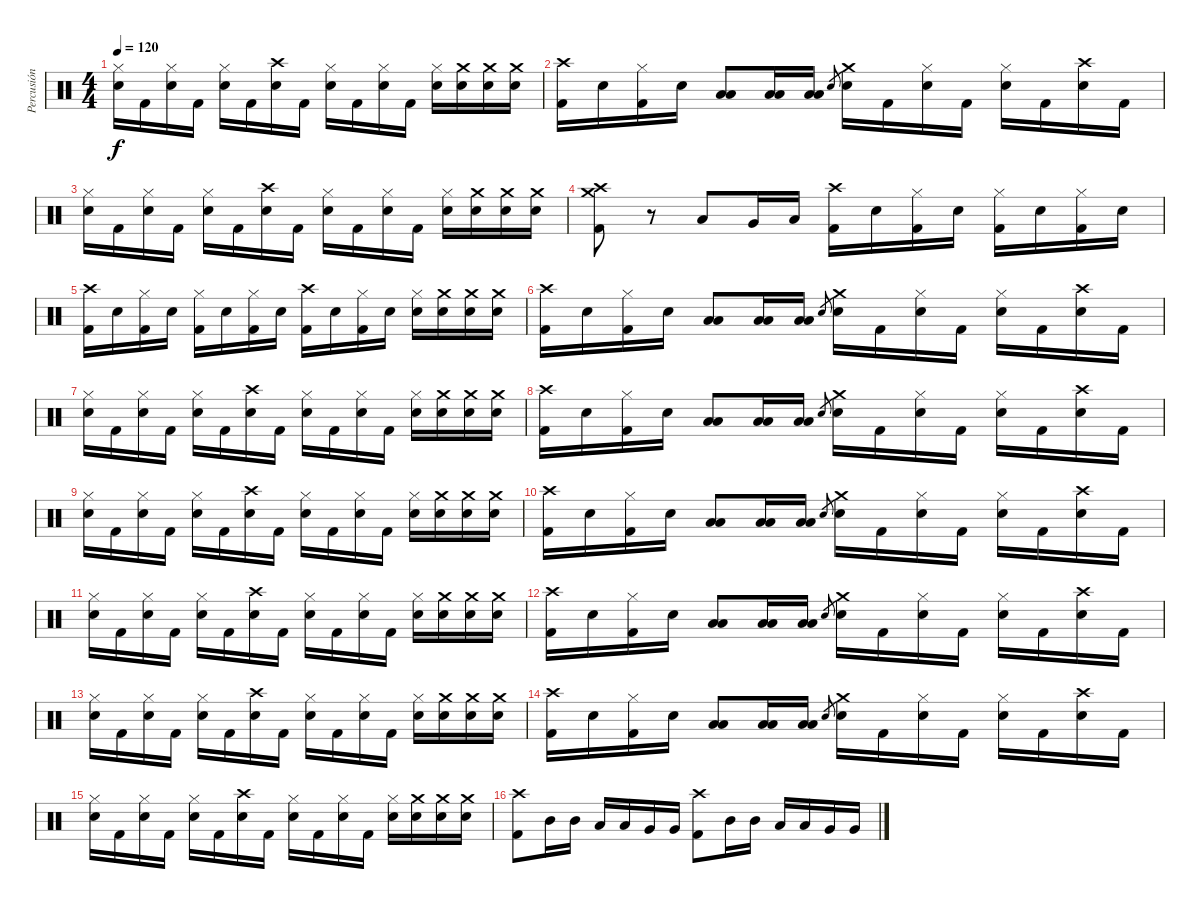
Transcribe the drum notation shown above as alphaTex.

\track ("Percusión" "Percusión") {instrument percussion}
\staff {score}
\articulation defaults
\ts (4 4)
\tempo 120
\clef neutral
\ks c
("Hi-Hat (closed)" "Snare (hit) 2").16{dy f} "Kick (hit) 2".16 ("Hi-Hat (closed)" "Snare (hit) 2").16 "Kick (hit) 2".16 ("Hi-Hat (closed)" "Snare (hit) 2").16 "Kick (hit) 2".16 ("Crash high (hit)" "Snare (hit) 2").16 "Kick (hit) 2".16 ("Hi-Hat (closed)" "Snare (hit) 2").16 "Kick (hit) 2".16 ("Hi-Hat (closed)" "Snare (hit) 2").16 "Kick (hit) 2".16 ("Hi-Hat (closed)" "Snare (hit) 2").16 ("Crash medium (hit)" "Snare (hit) 2").16 ("Crash medium (hit)" "Snare (hit) 2").16 ("Crash medium (hit)" "Snare (hit) 2").16 |
("Crash high (hit)" "Kick (hit) 2").16 "Snare (hit) 2".16 ("Hi-Hat (closed)" "Kick (hit) 2").16 "Snare (hit) 2".16 ("Low Tom (hit)" "Low Floor Tom (hit)").8 ("Low Tom (hit)" "Low Floor Tom (hit)").16 ("Low Floor Tom (hit)" "Low Tom (hit)").16 "Snare (hit) 2".8{gr} ("Crash medium (hit)" "Snare (hit) 2").16 "Kick (hit) 2".16 ("Hi-Hat (closed)" "Snare (hit) 2").16 "Kick (hit) 2".16 ("Hi-Hat (closed)" "Snare (hit) 2").16 "Kick (hit) 2".16 ("Crash high (hit)" "Snare (hit) 2").16 "Kick (hit) 2".16 |
("Hi-Hat (closed)" "Snare (hit) 2").16 "Kick (hit) 2".16 ("Hi-Hat (closed)" "Snare (hit) 2").16 "Kick (hit) 2".16 ("Hi-Hat (closed)" "Snare (hit) 2").16 "Kick (hit) 2".16 ("Crash high (hit)" "Snare (hit) 2").16 "Kick (hit) 2".16 ("Hi-Hat (closed)" "Snare (hit) 2").16 "Kick (hit) 2".16 ("Hi-Hat (closed)" "Snare (hit) 2").16 "Kick (hit) 2".16 ("Hi-Hat (closed)" "Snare (hit) 2").16 ("Crash medium (hit)" "Snare (hit) 2").16 ("Crash medium (hit)" "Snare (hit) 2").16 ("Crash medium (hit)" "Snare (hit) 2").16 |
("Crash medium (hit)" "Crash high (hit)" "Kick (hit) 2").8 r.8 "Low Tom (hit)".8 "Very Low Tom (hit)".16 "Low Floor Tom (hit)".16 ("Crash high (hit)" "Kick (hit) 2").16 "Snare (hit) 2".16 ("Hi-Hat (closed)" "Kick (hit) 2").16 "Snare (hit) 2".16 ("Hi-Hat (closed)" "Kick (hit) 2").16 "Snare (hit) 2".16 ("Hi-Hat (closed)" "Kick (hit) 2").16 "Snare (hit) 2".16 |
("Crash high (hit)" "Kick (hit) 2").16 "Snare (hit) 2".16 ("Hi-Hat (closed)" "Kick (hit) 2").16 "Snare (hit) 2".16 ("Hi-Hat (closed)" "Kick (hit) 2").16 "Snare (hit) 2".16 ("Hi-Hat (closed)" "Kick (hit) 2").16 "Snare (hit) 2".16 ("Crash high (hit)" "Kick (hit) 2").16 "Snare (hit) 2".16 ("Hi-Hat (closed)" "Kick (hit) 2").16 "Snare (hit) 2".16 ("Hi-Hat (closed)" "Snare (hit) 2").16 ("Crash medium (hit)" "Snare (hit) 2").16 ("Crash medium (hit)" "Snare (hit) 2").16 ("Crash medium (hit)" "Snare (hit) 2").16 |
("Crash high (hit)" "Kick (hit) 2").16 "Snare (hit) 2".16 ("Hi-Hat (closed)" "Kick (hit) 2").16 "Snare (hit) 2".16 ("Low Tom (hit)" "Low Floor Tom (hit)").8 ("Low Tom (hit)" "Low Floor Tom (hit)").16 ("Low Floor Tom (hit)" "Low Tom (hit)").16 "Snare (hit) 2".8{gr} ("Crash medium (hit)" "Snare (hit) 2").16 "Kick (hit) 2".16 ("Hi-Hat (closed)" "Snare (hit) 2").16 "Kick (hit) 2".16 ("Hi-Hat (closed)" "Snare (hit) 2").16 "Kick (hit) 2".16 ("Crash high (hit)" "Snare (hit) 2").16 "Kick (hit) 2".16 |
("Hi-Hat (closed)" "Snare (hit) 2").16 "Kick (hit) 2".16 ("Hi-Hat (closed)" "Snare (hit) 2").16 "Kick (hit) 2".16 ("Hi-Hat (closed)" "Snare (hit) 2").16 "Kick (hit) 2".16 ("Crash high (hit)" "Snare (hit) 2").16 "Kick (hit) 2".16 ("Hi-Hat (closed)" "Snare (hit) 2").16 "Kick (hit) 2".16 ("Hi-Hat (closed)" "Snare (hit) 2").16 "Kick (hit) 2".16 ("Hi-Hat (closed)" "Snare (hit) 2").16 ("Crash medium (hit)" "Snare (hit) 2").16 ("Crash medium (hit)" "Snare (hit) 2").16 ("Crash medium (hit)" "Snare (hit) 2").16 |
("Crash high (hit)" "Kick (hit) 2").16 "Snare (hit) 2".16 ("Hi-Hat (closed)" "Kick (hit) 2").16 "Snare (hit) 2".16 ("Low Tom (hit)" "Low Floor Tom (hit)").8 ("Low Tom (hit)" "Low Floor Tom (hit)").16 ("Low Floor Tom (hit)" "Low Tom (hit)").16 "Snare (hit) 2".8{gr} ("Crash medium (hit)" "Snare (hit) 2").16 "Kick (hit) 2".16 ("Hi-Hat (closed)" "Snare (hit) 2").16 "Kick (hit) 2".16 ("Hi-Hat (closed)" "Snare (hit) 2").16 "Kick (hit) 2".16 ("Crash high (hit)" "Snare (hit) 2").16 "Kick (hit) 2".16 |
("Hi-Hat (closed)" "Snare (hit) 2").16 "Kick (hit) 2".16 ("Hi-Hat (closed)" "Snare (hit) 2").16 "Kick (hit) 2".16 ("Hi-Hat (closed)" "Snare (hit) 2").16 "Kick (hit) 2".16 ("Crash high (hit)" "Snare (hit) 2").16 "Kick (hit) 2".16 ("Hi-Hat (closed)" "Snare (hit) 2").16 "Kick (hit) 2".16 ("Hi-Hat (closed)" "Snare (hit) 2").16 "Kick (hit) 2".16 ("Hi-Hat (closed)" "Snare (hit) 2").16 ("Crash medium (hit)" "Snare (hit) 2").16 ("Crash medium (hit)" "Snare (hit) 2").16 ("Crash medium (hit)" "Snare (hit) 2").16 |
("Crash high (hit)" "Kick (hit) 2").16 "Snare (hit) 2".16 ("Hi-Hat (closed)" "Kick (hit) 2").16 "Snare (hit) 2".16 ("Low Tom (hit)" "Low Floor Tom (hit)").8 ("Low Tom (hit)" "Low Floor Tom (hit)").16 ("Low Floor Tom (hit)" "Low Tom (hit)").16 "Snare (hit) 2".8{gr} ("Crash medium (hit)" "Snare (hit) 2").16 "Kick (hit) 2".16 ("Hi-Hat (closed)" "Snare (hit) 2").16 "Kick (hit) 2".16 ("Hi-Hat (closed)" "Snare (hit) 2").16 "Kick (hit) 2".16 ("Crash high (hit)" "Snare (hit) 2").16 "Kick (hit) 2".16 |
("Hi-Hat (closed)" "Snare (hit) 2").16 "Kick (hit) 2".16 ("Hi-Hat (closed)" "Snare (hit) 2").16 "Kick (hit) 2".16 ("Hi-Hat (closed)" "Snare (hit) 2").16 "Kick (hit) 2".16 ("Crash high (hit)" "Snare (hit) 2").16 "Kick (hit) 2".16 ("Hi-Hat (closed)" "Snare (hit) 2").16 "Kick (hit) 2".16 ("Hi-Hat (closed)" "Snare (hit) 2").16 "Kick (hit) 2".16 ("Hi-Hat (closed)" "Snare (hit) 2").16 ("Crash medium (hit)" "Snare (hit) 2").16 ("Crash medium (hit)" "Snare (hit) 2").16 ("Crash medium (hit)" "Snare (hit) 2").16 |
("Crash high (hit)" "Kick (hit) 2").16 "Snare (hit) 2".16 ("Hi-Hat (closed)" "Kick (hit) 2").16 "Snare (hit) 2".16 ("Low Tom (hit)" "Low Floor Tom (hit)").8 ("Low Tom (hit)" "Low Floor Tom (hit)").16 ("Low Floor Tom (hit)" "Low Tom (hit)").16 "Snare (hit) 2".8{gr} ("Crash medium (hit)" "Snare (hit) 2").16 "Kick (hit) 2".16 ("Hi-Hat (closed)" "Snare (hit) 2").16 "Kick (hit) 2".16 ("Hi-Hat (closed)" "Snare (hit) 2").16 "Kick (hit) 2".16 ("Crash high (hit)" "Snare (hit) 2").16 "Kick (hit) 2".16 |
("Hi-Hat (closed)" "Snare (hit) 2").16 "Kick (hit) 2".16 ("Hi-Hat (closed)" "Snare (hit) 2").16 "Kick (hit) 2".16 ("Hi-Hat (closed)" "Snare (hit) 2").16 "Kick (hit) 2".16 ("Crash high (hit)" "Snare (hit) 2").16 "Kick (hit) 2".16 ("Hi-Hat (closed)" "Snare (hit) 2").16 "Kick (hit) 2".16 ("Hi-Hat (closed)" "Snare (hit) 2").16 "Kick (hit) 2".16 ("Hi-Hat (closed)" "Snare (hit) 2").16 ("Crash medium (hit)" "Snare (hit) 2").16 ("Crash medium (hit)" "Snare (hit) 2").16 ("Crash medium (hit)" "Snare (hit) 2").16 |
("Crash high (hit)" "Kick (hit) 2").16 "Snare (hit) 2".16 ("Hi-Hat (closed)" "Kick (hit) 2").16 "Snare (hit) 2".16 ("Low Tom (hit)" "Low Floor Tom (hit)").8 ("Low Tom (hit)" "Low Floor Tom (hit)").16 ("Low Floor Tom (hit)" "Low Tom (hit)").16 "Snare (hit) 2".8{gr} ("Crash medium (hit)" "Snare (hit) 2").16 "Kick (hit) 2".16 ("Hi-Hat (closed)" "Snare (hit) 2").16 "Kick (hit) 2".16 ("Hi-Hat (closed)" "Snare (hit) 2").16 "Kick (hit) 2".16 ("Crash high (hit)" "Snare (hit) 2").16 "Kick (hit) 2".16 |
("Hi-Hat (closed)" "Snare (hit) 2").16 "Kick (hit) 2".16 ("Hi-Hat (closed)" "Snare (hit) 2").16 "Kick (hit) 2".16 ("Hi-Hat (closed)" "Snare (hit) 2").16 "Kick (hit) 2".16 ("Crash high (hit)" "Snare (hit) 2").16 "Kick (hit) 2".16 ("Hi-Hat (closed)" "Snare (hit) 2").16 "Kick (hit) 2".16 ("Hi-Hat (closed)" "Snare (hit) 2").16 "Kick (hit) 2".16 ("Hi-Hat (closed)" "Snare (hit) 2").16 ("Crash medium (hit)" "Snare (hit) 2").16 ("Crash medium (hit)" "Snare (hit) 2").16 ("Crash medium (hit)" "Snare (hit) 2").16 |
("Crash high (hit)" "Kick (hit) 2").8 "Mid Tom (hit)".16 "Mid Tom (hit)".16 "Low Tom (hit)".16 "Low Tom (hit)".16 "Very Low Tom (hit)".16 "Very Low Tom (hit)".16 ("Crash high (hit)" "Kick (hit) 2").8 "Mid Tom (hit)".16 "Mid Tom (hit)".16 "Low Tom (hit)".16 "Low Tom (hit)".16 "Very Low Tom (hit)".16 "Very Low Tom (hit)".16
